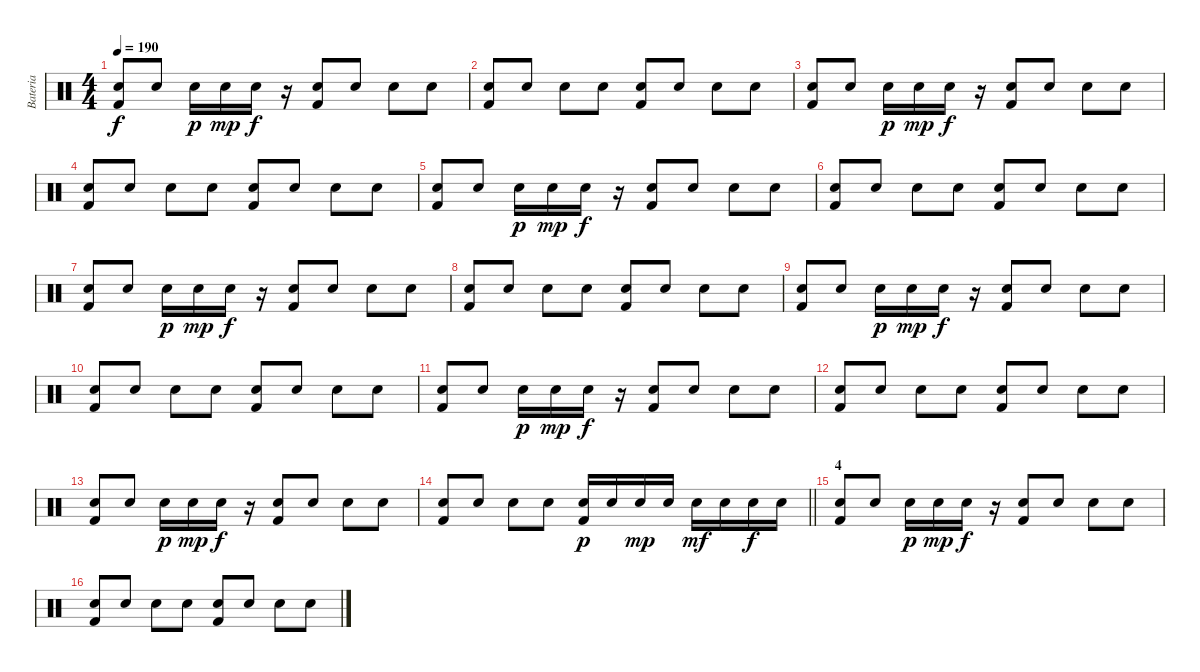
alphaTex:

\track ("Bateria" "Bateria") {instrument percussion}
\staff {score}
\articulation defaults
\ts (4 4)
\tempo 190
\clef neutral
\ks c
("Electric Snare (hit)" "Kick (hit) 2").8{dy f} "Snare (hit)".8 "Electric Snare (hit)".16{dy p} "Electric Snare (hit)".16{dy mp} "Electric Snare (hit)".16{dy f} r.16 ("Electric Snare (hit)" "Kick (hit) 2").8 "Snare (hit)".8 "Electric Snare (hit)".8 "Snare (hit)".8 |
("Electric Snare (hit)" "Kick (hit) 2").8 "Electric Snare (hit)".8 "Electric Snare (hit)".8 "Snare (hit)".8 ("Electric Snare (hit)" "Kick (hit) 2").8 "Snare (hit)".8 "Electric Snare (hit)".8 "Electric Snare (hit)".8 |
("Electric Snare (hit)" "Kick (hit) 2").8 "Snare (hit)".8 "Electric Snare (hit)".16{dy p} "Electric Snare (hit)".16{dy mp} "Electric Snare (hit)".16{dy f} r.16 ("Electric Snare (hit)" "Kick (hit) 2").8 "Snare (hit)".8 "Electric Snare (hit)".8 "Snare (hit)".8 |
("Electric Snare (hit)" "Kick (hit) 2").8 "Electric Snare (hit)".8 "Electric Snare (hit)".8 "Snare (hit)".8 ("Electric Snare (hit)" "Kick (hit) 2").8 "Snare (hit)".8 "Electric Snare (hit)".8 "Electric Snare (hit)".8 |
("Electric Snare (hit)" "Kick (hit) 2").8 "Snare (hit)".8 "Electric Snare (hit)".16{dy p} "Electric Snare (hit)".16{dy mp} "Electric Snare (hit)".16{dy f} r.16 ("Electric Snare (hit)" "Kick (hit) 2").8 "Snare (hit)".8 "Electric Snare (hit)".8 "Snare (hit)".8 |
("Electric Snare (hit)" "Kick (hit) 2").8 "Electric Snare (hit)".8 "Electric Snare (hit)".8 "Snare (hit)".8 ("Electric Snare (hit)" "Kick (hit) 2").8 "Snare (hit)".8 "Electric Snare (hit)".8 "Electric Snare (hit)".8 |
("Electric Snare (hit)" "Kick (hit) 2").8 "Snare (hit)".8 "Electric Snare (hit)".16{dy p} "Electric Snare (hit)".16{dy mp} "Electric Snare (hit)".16{dy f} r.16 ("Electric Snare (hit)" "Kick (hit) 2").8 "Snare (hit)".8 "Electric Snare (hit)".8 "Snare (hit)".8 |
("Electric Snare (hit)" "Kick (hit) 2").8 "Electric Snare (hit)".8 "Electric Snare (hit)".8 "Snare (hit)".8 ("Electric Snare (hit)" "Kick (hit) 2").8 "Snare (hit)".8 "Electric Snare (hit)".8 "Electric Snare (hit)".8 |
("Electric Snare (hit)" "Kick (hit) 2").8 "Snare (hit)".8 "Electric Snare (hit)".16{dy p} "Electric Snare (hit)".16{dy mp} "Electric Snare (hit)".16{dy f} r.16 ("Electric Snare (hit)" "Kick (hit) 2").8 "Snare (hit)".8 "Electric Snare (hit)".8 "Snare (hit)".8 |
("Electric Snare (hit)" "Kick (hit) 2").8 "Electric Snare (hit)".8 "Electric Snare (hit)".8 "Snare (hit)".8 ("Electric Snare (hit)" "Kick (hit) 2").8 "Snare (hit)".8 "Electric Snare (hit)".8 "Electric Snare (hit)".8 |
("Electric Snare (hit)" "Kick (hit) 2").8 "Snare (hit)".8 "Electric Snare (hit)".16{dy p} "Electric Snare (hit)".16{dy mp} "Electric Snare (hit)".16{dy f} r.16 ("Electric Snare (hit)" "Kick (hit) 2").8 "Snare (hit)".8 "Electric Snare (hit)".8 "Snare (hit)".8 |
("Electric Snare (hit)" "Kick (hit) 2").8 "Electric Snare (hit)".8 "Electric Snare (hit)".8 "Snare (hit)".8 ("Electric Snare (hit)" "Kick (hit) 2").8 "Snare (hit)".8 "Electric Snare (hit)".8 "Electric Snare (hit)".8 |
("Electric Snare (hit)" "Kick (hit) 2").8 "Snare (hit)".8 "Electric Snare (hit)".16{dy p} "Electric Snare (hit)".16{dy mp} "Electric Snare (hit)".16{dy f} r.16 ("Electric Snare (hit)" "Kick (hit) 2").8 "Snare (hit)".8 "Electric Snare (hit)".8 "Snare (hit)".8 |
\barLineRight lightlight
("Electric Snare (hit)" "Kick (hit) 2").8 "Electric Snare (hit)".8 "Electric Snare (hit)".8 "Snare (hit)".8 ("Electric Snare (hit)" "Kick (hit) 2").16{dy p} "Electric Snare (hit)".16 "Electric Snare (hit)".16{dy mp} "Electric Snare (hit)".16 "Electric Snare (hit)".16{dy mf} "Electric Snare (hit)".16 "Electric Snare (hit)".16{dy f} "Electric Snare (hit)".16 |
\section ("" "4")
("Electric Snare (hit)" "Kick (hit) 2").8 "Snare (hit)".8 "Electric Snare (hit)".16{dy p} "Electric Snare (hit)".16{dy mp} "Electric Snare (hit)".16{dy f} r.16 ("Electric Snare (hit)" "Kick (hit) 2").8 "Snare (hit)".8 "Electric Snare (hit)".8 "Snare (hit)".8 |
("Electric Snare (hit)" "Kick (hit) 2").8 "Electric Snare (hit)".8 "Electric Snare (hit)".8 "Snare (hit)".8 ("Electric Snare (hit)" "Kick (hit) 2").8 "Snare (hit)".8 "Electric Snare (hit)".8 "Electric Snare (hit)".8
